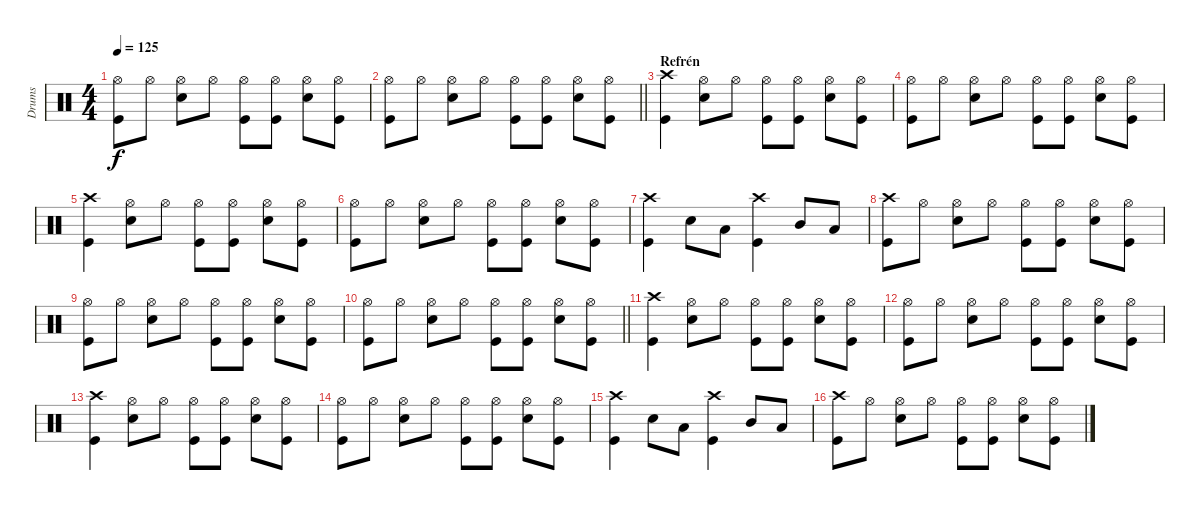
\track ("Drums" "Drums") {instrument percussion}
\staff {score}
\articulation defaults
\ts (4 4)
\tempo 125
\clef neutral
\ks c
("Hi-Hat (open)" "Kick (hit)").8{dy f} "Hi-Hat (open)".8 ("Hi-Hat (open)" "Electric Snare (hit)").8 "Hi-Hat (open)".8 ("Hi-Hat (open)" "Kick (hit)").8 ("Hi-Hat (open)" "Kick (hit)").8 ("Hi-Hat (open)" "Electric Snare (hit)").8 ("Hi-Hat (open)" "Kick (hit)").8 |
\barLineRight lightlight
("Hi-Hat (open)" "Kick (hit)").8 "Hi-Hat (open)".8 ("Hi-Hat (open)" "Electric Snare (hit)").8 "Hi-Hat (open)".8 ("Hi-Hat (open)" "Kick (hit)").8 ("Hi-Hat (open)" "Kick (hit)").8 ("Hi-Hat (open)" "Electric Snare (hit)").8 ("Hi-Hat (open)" "Kick (hit)").8 |
\section ("" "Refrén")
("Crash high (hit)" "Kick (hit)").4 ("Hi-Hat (open)" "Electric Snare (hit)").8 "Hi-Hat (open)".8 ("Hi-Hat (open)" "Kick (hit)").8 ("Hi-Hat (open)" "Kick (hit)").8 ("Hi-Hat (open)" "Electric Snare (hit)").8 ("Hi-Hat (open)" "Kick (hit)").8 |
("Hi-Hat (open)" "Kick (hit)").8 "Hi-Hat (open)".8 ("Hi-Hat (open)" "Electric Snare (hit)").8 "Hi-Hat (open)".8 ("Hi-Hat (open)" "Kick (hit)").8 ("Hi-Hat (open)" "Kick (hit)").8 ("Hi-Hat (open)" "Electric Snare (hit)").8 ("Hi-Hat (open)" "Kick (hit)").8 |
("Crash high (hit)" "Kick (hit)").4 ("Hi-Hat (open)" "Electric Snare (hit)").8 "Hi-Hat (open)".8 ("Hi-Hat (open)" "Kick (hit)").8 ("Hi-Hat (open)" "Kick (hit)").8 ("Hi-Hat (open)" "Electric Snare (hit)").8 ("Hi-Hat (open)" "Kick (hit)").8 |
("Hi-Hat (open)" "Kick (hit)").8 "Hi-Hat (open)".8 ("Hi-Hat (open)" "Electric Snare (hit)").8 "Hi-Hat (open)".8 ("Hi-Hat (open)" "Kick (hit)").8 ("Hi-Hat (open)" "Kick (hit)").8 ("Hi-Hat (open)" "Electric Snare (hit)").8 ("Hi-Hat (open)" "Kick (hit)").8 |
("Crash high (hit)" "Kick (hit)").4 "Electric Snare (hit)".8 "Low Tom (hit)".8 ("Crash high (hit)" "Kick (hit)").4 "Mid Tom (hit)".8 "Low Tom (hit)".8 |
("Crash high (hit)" "Kick (hit)").8 "Hi-Hat (open)".8 ("Hi-Hat (open)" "Electric Snare (hit)").8 "Hi-Hat (open)".8 ("Hi-Hat (open)" "Kick (hit)").8 ("Hi-Hat (open)" "Kick (hit)").8 ("Hi-Hat (open)" "Electric Snare (hit)").8 ("Hi-Hat (open)" "Kick (hit)").8 |
("Hi-Hat (open)" "Kick (hit)").8 "Hi-Hat (open)".8 ("Hi-Hat (open)" "Electric Snare (hit)").8 "Hi-Hat (open)".8 ("Hi-Hat (open)" "Kick (hit)").8 ("Hi-Hat (open)" "Kick (hit)").8 ("Hi-Hat (open)" "Electric Snare (hit)").8 ("Hi-Hat (open)" "Kick (hit)").8 |
\barLineRight lightlight
("Hi-Hat (open)" "Kick (hit)").8 "Hi-Hat (open)".8 ("Hi-Hat (open)" "Electric Snare (hit)").8 "Hi-Hat (open)".8 ("Hi-Hat (open)" "Kick (hit)").8 ("Hi-Hat (open)" "Kick (hit)").8 ("Hi-Hat (open)" "Electric Snare (hit)").8 ("Hi-Hat (open)" "Kick (hit)").8 |
("Crash high (hit)" "Kick (hit)").4 ("Hi-Hat (open)" "Electric Snare (hit)").8 "Hi-Hat (open)".8 ("Hi-Hat (open)" "Kick (hit)").8 ("Hi-Hat (open)" "Kick (hit)").8 ("Hi-Hat (open)" "Electric Snare (hit)").8 ("Hi-Hat (open)" "Kick (hit)").8 |
("Hi-Hat (open)" "Kick (hit)").8 "Hi-Hat (open)".8 ("Hi-Hat (open)" "Electric Snare (hit)").8 "Hi-Hat (open)".8 ("Hi-Hat (open)" "Kick (hit)").8 ("Hi-Hat (open)" "Kick (hit)").8 ("Hi-Hat (open)" "Electric Snare (hit)").8 ("Hi-Hat (open)" "Kick (hit)").8 |
("Crash high (hit)" "Kick (hit)").4 ("Hi-Hat (open)" "Electric Snare (hit)").8 "Hi-Hat (open)".8 ("Hi-Hat (open)" "Kick (hit)").8 ("Hi-Hat (open)" "Kick (hit)").8 ("Hi-Hat (open)" "Electric Snare (hit)").8 ("Hi-Hat (open)" "Kick (hit)").8 |
("Hi-Hat (open)" "Kick (hit)").8 "Hi-Hat (open)".8 ("Hi-Hat (open)" "Electric Snare (hit)").8 "Hi-Hat (open)".8 ("Hi-Hat (open)" "Kick (hit)").8 ("Hi-Hat (open)" "Kick (hit)").8 ("Hi-Hat (open)" "Electric Snare (hit)").8 ("Hi-Hat (open)" "Kick (hit)").8 |
("Crash high (hit)" "Kick (hit)").4 "Electric Snare (hit)".8 "Low Tom (hit)".8 ("Crash high (hit)" "Kick (hit)").4 "Mid Tom (hit)".8 "Low Tom (hit)".8 |
("Crash high (hit)" "Kick (hit)").8 "Hi-Hat (open)".8 ("Hi-Hat (open)" "Electric Snare (hit)").8 "Hi-Hat (open)".8 ("Hi-Hat (open)" "Kick (hit)").8 ("Hi-Hat (open)" "Kick (hit)").8 ("Hi-Hat (open)" "Electric Snare (hit)").8 ("Hi-Hat (open)" "Kick (hit)").8
